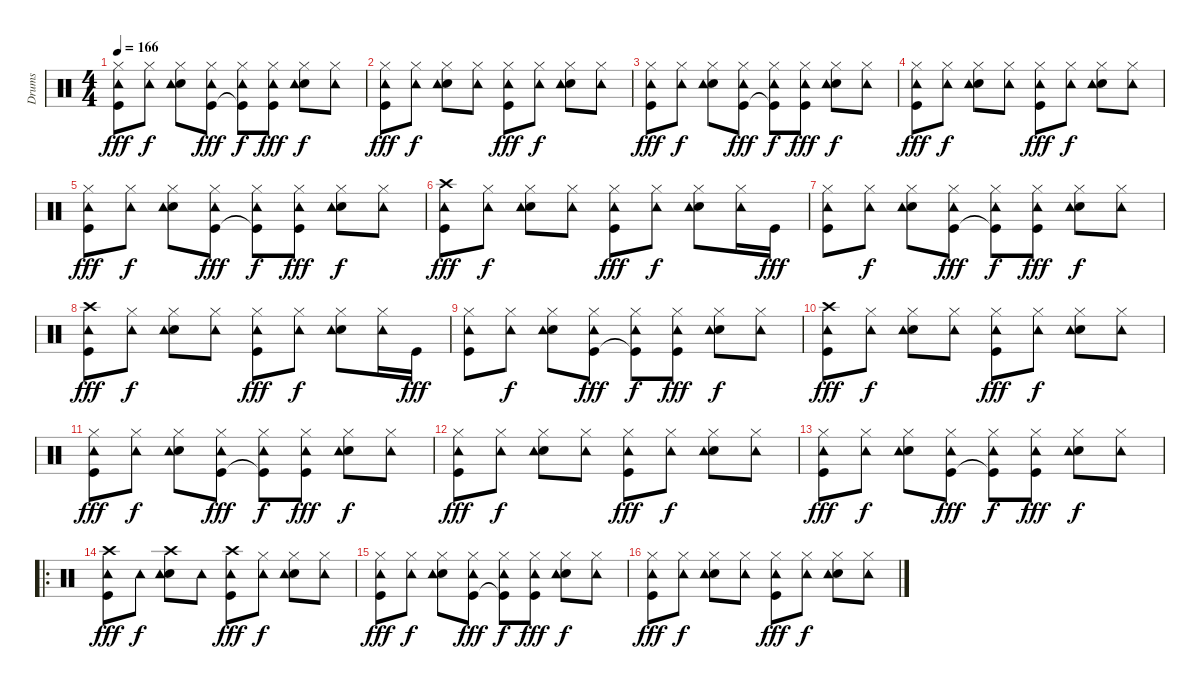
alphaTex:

\track ("Drums" "Drums") {instrument percussion}
\staff {score}
\articulation defaults
\ts (4 4)
\tempo 166
\clef neutral
\ks c
("Hi-Hat (closed)" "Tambourine (hit)" "Kick (hit)").8{dy fff} ("Hi-Hat (closed)" "Tambourine (hit)").8{dy f} ("Hi-Hat (closed)" "Snare (hit) 2" "Tambourine (hit)").8 ("Hi-Hat (closed)" "Tambourine (hit)" "Kick (hit)").8{dy fff} ("Hi-Hat (closed)" "Tambourine (hit)" "Kick (hit)"{t}).8{dy f} ("Hi-Hat (closed)" "Tambourine (hit)" "Kick (hit)").8{dy fff} ("Hi-Hat (closed)" "Snare (hit) 2" "Tambourine (hit)").8{dy f} ("Hi-Hat (closed)" "Tambourine (hit)").8 |
("Hi-Hat (closed)" "Tambourine (hit)" "Kick (hit)").8{dy fff} ("Hi-Hat (closed)" "Tambourine (hit)").8{dy f} ("Hi-Hat (closed)" "Snare (hit) 2" "Tambourine (hit)").8 ("Hi-Hat (closed)" "Tambourine (hit)").8 ("Hi-Hat (closed)" "Tambourine (hit)" "Kick (hit)").8{dy fff} ("Hi-Hat (closed)" "Tambourine (hit)").8{dy f} ("Hi-Hat (closed)" "Snare (hit) 2" "Tambourine (hit)").8 ("Hi-Hat (closed)" "Tambourine (hit)").8 |
("Hi-Hat (closed)" "Tambourine (hit)" "Kick (hit)").8{dy fff} ("Hi-Hat (closed)" "Tambourine (hit)").8{dy f} ("Hi-Hat (closed)" "Snare (hit) 2" "Tambourine (hit)").8 ("Hi-Hat (closed)" "Tambourine (hit)" "Kick (hit)").8{dy fff} ("Hi-Hat (closed)" "Tambourine (hit)" "Kick (hit)"{t}).8{dy f} ("Hi-Hat (closed)" "Tambourine (hit)" "Kick (hit)").8{dy fff} ("Hi-Hat (closed)" "Snare (hit) 2" "Tambourine (hit)").8{dy f} ("Hi-Hat (closed)" "Tambourine (hit)").8 |
("Hi-Hat (closed)" "Tambourine (hit)" "Kick (hit)").8{dy fff} ("Hi-Hat (closed)" "Tambourine (hit)").8{dy f} ("Hi-Hat (closed)" "Snare (hit) 2" "Tambourine (hit)").8 ("Hi-Hat (closed)" "Tambourine (hit)").8 ("Hi-Hat (closed)" "Tambourine (hit)" "Kick (hit)").8{dy fff} ("Hi-Hat (closed)" "Tambourine (hit)").8{dy f} ("Hi-Hat (closed)" "Snare (hit) 2" "Tambourine (hit)").8 ("Hi-Hat (closed)" "Tambourine (hit)").8 |
("Hi-Hat (closed)" "Tambourine (hit)" "Kick (hit)").8{dy fff} ("Hi-Hat (closed)" "Tambourine (hit)").8{dy f} ("Hi-Hat (closed)" "Snare (hit) 2" "Tambourine (hit)").8 ("Hi-Hat (closed)" "Tambourine (hit)" "Kick (hit)").8{dy fff} ("Hi-Hat (closed)" "Tambourine (hit)" "Kick (hit)"{t}).8{dy f} ("Hi-Hat (closed)" "Tambourine (hit)" "Kick (hit)").8{dy fff} ("Hi-Hat (closed)" "Snare (hit) 2" "Tambourine (hit)").8{dy f} ("Hi-Hat (closed)" "Tambourine (hit)").8 |
("Crash high (hit)" "Tambourine (hit)" "Kick (hit)").8{dy fff} ("Hi-Hat (closed)" "Tambourine (hit)").8{dy f} ("Hi-Hat (closed)" "Snare (hit) 2" "Tambourine (hit)").8 ("Hi-Hat (closed)" "Tambourine (hit)").8 ("Hi-Hat (closed)" "Tambourine (hit)" "Kick (hit)").8{dy fff} ("Hi-Hat (closed)" "Tambourine (hit)").8{dy f} ("Hi-Hat (closed)" "Snare (hit) 2" "Tambourine (hit)").8 ("Hi-Hat (closed)" "Tambourine (hit)").16 "Kick (hit)".16{dy fff} |
("Hi-Hat (closed)" "Tambourine (hit)" "Kick (hit)").8 ("Hi-Hat (closed)" "Tambourine (hit)").8{dy f} ("Hi-Hat (closed)" "Snare (hit) 2" "Tambourine (hit)").8 ("Hi-Hat (closed)" "Tambourine (hit)" "Kick (hit)").8{dy fff} ("Hi-Hat (closed)" "Tambourine (hit)" "Kick (hit)"{t}).8{dy f} ("Hi-Hat (closed)" "Tambourine (hit)" "Kick (hit)").8{dy fff} ("Hi-Hat (closed)" "Snare (hit) 2" "Tambourine (hit)").8{dy f} ("Hi-Hat (closed)" "Tambourine (hit)").8 |
("Crash high (hit)" "Tambourine (hit)" "Kick (hit)").8{dy fff} ("Hi-Hat (closed)" "Tambourine (hit)").8{dy f} ("Hi-Hat (closed)" "Snare (hit) 2" "Tambourine (hit)").8 ("Hi-Hat (closed)" "Tambourine (hit)").8 ("Hi-Hat (closed)" "Tambourine (hit)" "Kick (hit)").8{dy fff} ("Hi-Hat (closed)" "Tambourine (hit)").8{dy f} ("Hi-Hat (closed)" "Snare (hit) 2" "Tambourine (hit)").8 ("Hi-Hat (closed)" "Tambourine (hit)").16 "Kick (hit)".16{dy fff} |
("Hi-Hat (closed)" "Tambourine (hit)" "Kick (hit)").8 ("Hi-Hat (closed)" "Tambourine (hit)").8{dy f} ("Hi-Hat (closed)" "Snare (hit) 2" "Tambourine (hit)").8 ("Hi-Hat (closed)" "Tambourine (hit)" "Kick (hit)").8{dy fff} ("Hi-Hat (closed)" "Tambourine (hit)" "Kick (hit)"{t}).8{dy f} ("Hi-Hat (closed)" "Tambourine (hit)" "Kick (hit)").8{dy fff} ("Hi-Hat (closed)" "Snare (hit) 2" "Tambourine (hit)").8{dy f} ("Hi-Hat (closed)" "Tambourine (hit)").8 |
("Crash high (hit)" "Tambourine (hit)" "Kick (hit)").8{dy fff} ("Hi-Hat (closed)" "Tambourine (hit)").8{dy f} ("Hi-Hat (closed)" "Snare (hit) 2" "Tambourine (hit)").8 ("Hi-Hat (closed)" "Tambourine (hit)").8 ("Hi-Hat (closed)" "Tambourine (hit)" "Kick (hit)").8{dy fff} ("Hi-Hat (closed)" "Tambourine (hit)").8{dy f} ("Hi-Hat (closed)" "Snare (hit) 2" "Tambourine (hit)").8 ("Hi-Hat (closed)" "Tambourine (hit)").8 |
("Hi-Hat (closed)" "Tambourine (hit)" "Kick (hit)").8{dy fff} ("Hi-Hat (closed)" "Tambourine (hit)").8{dy f} ("Hi-Hat (closed)" "Snare (hit) 2" "Tambourine (hit)").8 ("Hi-Hat (closed)" "Tambourine (hit)" "Kick (hit)").8{dy fff} ("Hi-Hat (closed)" "Tambourine (hit)" "Kick (hit)"{t}).8{dy f} ("Hi-Hat (closed)" "Tambourine (hit)" "Kick (hit)").8{dy fff} ("Hi-Hat (closed)" "Snare (hit) 2" "Tambourine (hit)").8{dy f} ("Hi-Hat (closed)" "Tambourine (hit)").8 |
("Hi-Hat (closed)" "Tambourine (hit)" "Kick (hit)").8{dy fff} ("Hi-Hat (closed)" "Tambourine (hit)").8{dy f} ("Hi-Hat (closed)" "Snare (hit) 2" "Tambourine (hit)").8 ("Hi-Hat (closed)" "Tambourine (hit)").8 ("Hi-Hat (closed)" "Tambourine (hit)" "Kick (hit)").8{dy fff} ("Hi-Hat (closed)" "Tambourine (hit)").8{dy f} ("Hi-Hat (closed)" "Snare (hit) 2" "Tambourine (hit)").8 ("Hi-Hat (closed)" "Tambourine (hit)").8 |
("Hi-Hat (closed)" "Tambourine (hit)" "Kick (hit)").8{dy fff} ("Hi-Hat (closed)" "Tambourine (hit)").8{dy f} ("Hi-Hat (closed)" "Snare (hit) 2" "Tambourine (hit)").8 ("Hi-Hat (closed)" "Tambourine (hit)" "Kick (hit)").8{dy fff} ("Hi-Hat (closed)" "Tambourine (hit)" "Kick (hit)"{t}).8{dy f} ("Hi-Hat (closed)" "Tambourine (hit)" "Kick (hit)").8{dy fff} ("Hi-Hat (closed)" "Snare (hit) 2" "Tambourine (hit)").8{dy f} ("Hi-Hat (closed)" "Tambourine (hit)").8 |
\ro
("Crash high (hit)" "Tambourine (hit)" "Kick (hit)").8{dy fff} "Tambourine (hit)".8{dy f} ("Crash high (hit)" "Snare (hit) 2" "Tambourine (hit)").8 "Tambourine (hit)".8 ("Crash high (hit)" "Tambourine (hit)" "Kick (hit)").8{dy fff} ("Hi-Hat (closed)" "Tambourine (hit)").8{dy f} ("Hi-Hat (closed)" "Snare (hit) 2" "Tambourine (hit)").8 ("Hi-Hat (closed)" "Tambourine (hit)").8 |
("Hi-Hat (closed)" "Tambourine (hit)" "Kick (hit)").8{dy fff} ("Hi-Hat (closed)" "Tambourine (hit)").8{dy f} ("Hi-Hat (closed)" "Snare (hit) 2" "Tambourine (hit)").8 ("Hi-Hat (closed)" "Tambourine (hit)" "Kick (hit)").8{dy fff} ("Hi-Hat (closed)" "Tambourine (hit)" "Kick (hit)"{t}).8{dy f} ("Hi-Hat (closed)" "Tambourine (hit)" "Kick (hit)").8{dy fff} ("Hi-Hat (closed)" "Snare (hit) 2" "Tambourine (hit)").8{dy f} ("Hi-Hat (closed)" "Tambourine (hit)").8 |
("Hi-Hat (closed)" "Tambourine (hit)" "Kick (hit)").8{dy fff} ("Hi-Hat (closed)" "Tambourine (hit)").8{dy f} ("Hi-Hat (closed)" "Snare (hit) 2" "Tambourine (hit)").8 ("Hi-Hat (closed)" "Tambourine (hit)").8 ("Hi-Hat (closed)" "Tambourine (hit)" "Kick (hit)").8{dy fff} ("Hi-Hat (closed)" "Tambourine (hit)").8{dy f} ("Hi-Hat (closed)" "Snare (hit) 2" "Tambourine (hit)").8 ("Hi-Hat (closed)" "Tambourine (hit)").8
